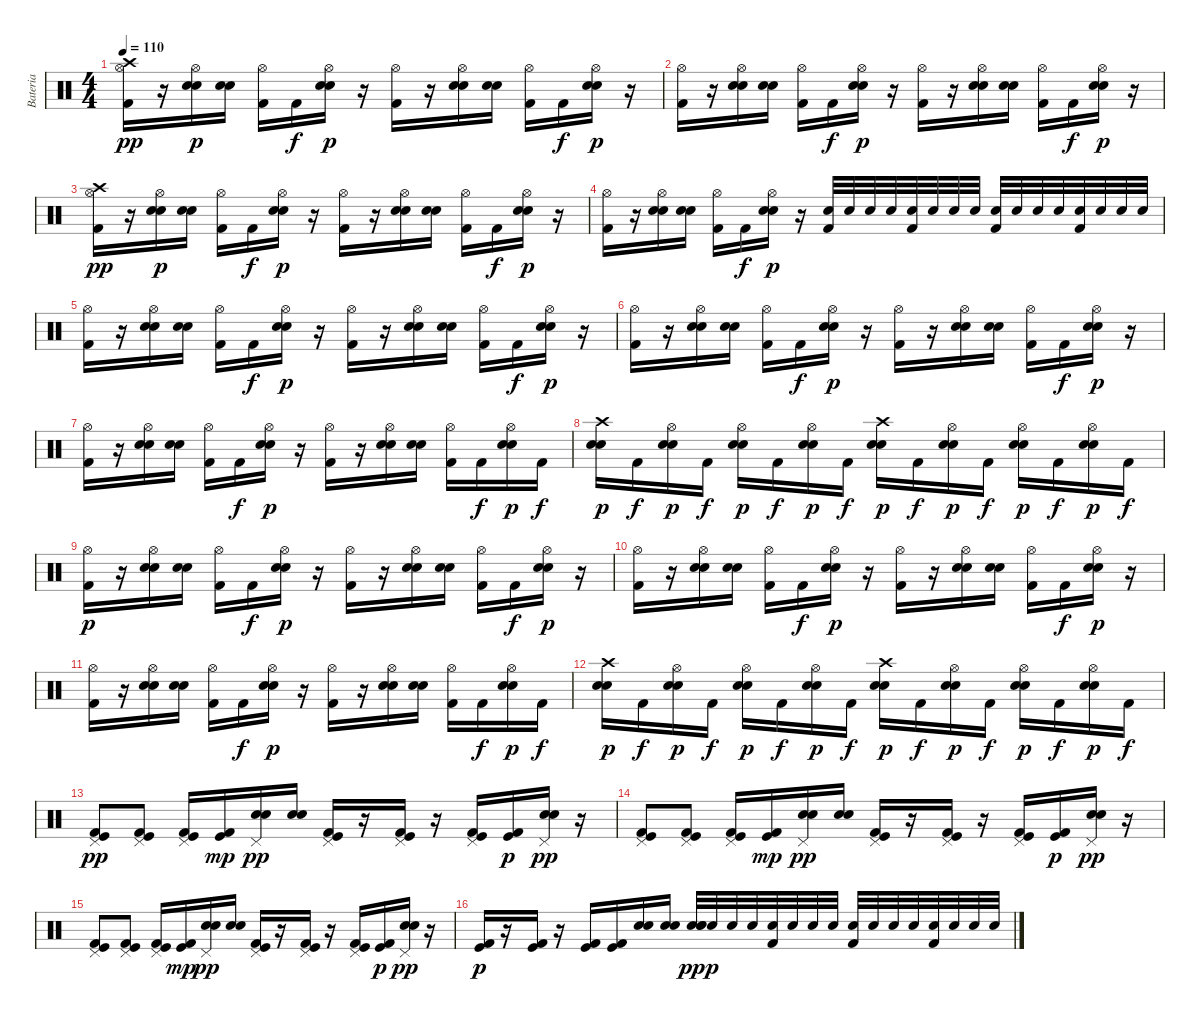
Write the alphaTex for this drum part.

\track ("Bateria" "Bateria") {instrument percussion}
\staff {score}
\articulation defaults
\ts (4 4)
\tempo 110
\clef neutral
\ks c
("Hi-Hat (open)" "Kick (hit) 2" "Crash high (hit)").16{dy pp} r.16 ("Hi-Hat (open)" "Electric Snare (hit)" "Snare (hit) 2").16{dy p} ("Electric Snare (hit)" "Snare (hit) 2").16 ("Hi-Hat (open)" "Kick (hit) 2").16 "Kick (hit) 2".16{dy f} ("Hi-Hat (open)" "Electric Snare (hit)" "Snare (hit) 2").16{dy p} r.16 ("Hi-Hat (open)" "Kick (hit) 2").16 r.16 ("Hi-Hat (open)" "Electric Snare (hit)" "Snare (hit) 2").16 ("Electric Snare (hit)" "Snare (hit) 2").16 ("Hi-Hat (open)" "Kick (hit) 2").16 "Kick (hit) 2".16{dy f} ("Hi-Hat (open)" "Electric Snare (hit)" "Snare (hit) 2").16{dy p} r.16 |
("Hi-Hat (open)" "Kick (hit) 2").16 r.16 ("Hi-Hat (open)" "Electric Snare (hit)" "Snare (hit) 2").16 ("Electric Snare (hit)" "Snare (hit) 2").16 ("Hi-Hat (open)" "Kick (hit) 2").16 "Kick (hit) 2".16{dy f} ("Hi-Hat (open)" "Electric Snare (hit)" "Snare (hit) 2").16{dy p} r.16 ("Hi-Hat (open)" "Kick (hit) 2").16 r.16 ("Hi-Hat (open)" "Electric Snare (hit)" "Snare (hit) 2").16 ("Electric Snare (hit)" "Snare (hit) 2").16 ("Hi-Hat (open)" "Kick (hit) 2").16 "Kick (hit) 2".16{dy f} ("Hi-Hat (open)" "Electric Snare (hit)" "Snare (hit) 2").16{dy p} r.16 |
("Hi-Hat (open)" "Kick (hit) 2" "Crash high (hit)").16{dy pp} r.16 ("Hi-Hat (open)" "Electric Snare (hit)" "Snare (hit) 2").16{dy p} ("Electric Snare (hit)" "Snare (hit) 2").16 ("Hi-Hat (open)" "Kick (hit) 2").16 "Kick (hit) 2".16{dy f} ("Hi-Hat (open)" "Electric Snare (hit)" "Snare (hit) 2").16{dy p} r.16 ("Hi-Hat (open)" "Kick (hit) 2").16 r.16 ("Hi-Hat (open)" "Electric Snare (hit)" "Snare (hit) 2").16 ("Electric Snare (hit)" "Snare (hit) 2").16 ("Hi-Hat (open)" "Kick (hit) 2").16 "Kick (hit) 2".16{dy f} ("Hi-Hat (open)" "Electric Snare (hit)" "Snare (hit) 2").16{dy p} r.16 |
("Hi-Hat (open)" "Kick (hit) 2").16 r.16 ("Hi-Hat (open)" "Electric Snare (hit)" "Snare (hit) 2").16 ("Electric Snare (hit)" "Snare (hit) 2").16 ("Hi-Hat (open)" "Kick (hit) 2").16 "Kick (hit) 2".16{dy f} ("Hi-Hat (open)" "Electric Snare (hit)" "Snare (hit) 2").16{dy p} r.16 ("Kick (hit) 2" "Electric Snare (hit)").32 "Electric Snare (hit)".32 "Electric Snare (hit)".32 "Electric Snare (hit)".32 ("Kick (hit) 2" "Electric Snare (hit)").32 "Electric Snare (hit)".32 "Electric Snare (hit)".32 "Electric Snare (hit)".32 ("Kick (hit) 2" "Electric Snare (hit)").32 "Electric Snare (hit)".32 "Electric Snare (hit)".32 "Electric Snare (hit)".32 ("Kick (hit) 2" "Electric Snare (hit)").32 "Electric Snare (hit)".32 "Electric Snare (hit)".32 "Electric Snare (hit)".32 |
("Hi-Hat (open)" "Kick (hit) 2").16 r.16 ("Hi-Hat (open)" "Electric Snare (hit)" "Snare (hit) 2").16 ("Electric Snare (hit)" "Snare (hit) 2").16 ("Hi-Hat (open)" "Kick (hit) 2").16 "Kick (hit) 2".16{dy f} ("Hi-Hat (open)" "Electric Snare (hit)" "Snare (hit) 2").16{dy p} r.16 ("Hi-Hat (open)" "Kick (hit) 2").16 r.16 ("Hi-Hat (open)" "Electric Snare (hit)" "Snare (hit) 2").16 ("Electric Snare (hit)" "Snare (hit) 2").16 ("Hi-Hat (open)" "Kick (hit) 2").16 "Kick (hit) 2".16{dy f} ("Hi-Hat (open)" "Electric Snare (hit)" "Snare (hit) 2").16{dy p} r.16 |
("Hi-Hat (open)" "Kick (hit) 2").16 r.16 ("Hi-Hat (open)" "Electric Snare (hit)" "Snare (hit) 2").16 ("Electric Snare (hit)" "Snare (hit) 2").16 ("Hi-Hat (open)" "Kick (hit) 2").16 "Kick (hit) 2".16{dy f} ("Hi-Hat (open)" "Electric Snare (hit)" "Snare (hit) 2").16{dy p} r.16 ("Hi-Hat (open)" "Kick (hit) 2").16 r.16 ("Hi-Hat (open)" "Electric Snare (hit)" "Snare (hit) 2").16 ("Electric Snare (hit)" "Snare (hit) 2").16 ("Hi-Hat (open)" "Kick (hit) 2").16 "Kick (hit) 2".16{dy f} ("Hi-Hat (open)" "Electric Snare (hit)" "Snare (hit) 2").16{dy p} r.16 |
("Hi-Hat (open)" "Kick (hit) 2").16 r.16 ("Hi-Hat (open)" "Electric Snare (hit)" "Snare (hit) 2").16 ("Electric Snare (hit)" "Snare (hit) 2").16 ("Hi-Hat (open)" "Kick (hit) 2").16 "Kick (hit) 2".16{dy f} ("Hi-Hat (open)" "Electric Snare (hit)" "Snare (hit) 2").16{dy p} r.16 ("Hi-Hat (open)" "Kick (hit) 2").16 r.16 ("Hi-Hat (open)" "Electric Snare (hit)" "Snare (hit) 2").16 ("Electric Snare (hit)" "Snare (hit) 2").16 ("Hi-Hat (open)" "Kick (hit) 2").16 "Kick (hit) 2".16{dy f} ("Hi-Hat (open)" "Electric Snare (hit)" "Snare (hit) 2").16{dy p} "Kick (hit) 2".16{dy f} |
("Electric Snare (hit)" "Snare (hit) 2" "Crash high (hit)").16{dy p} "Kick (hit) 2".16{dy f} ("Electric Snare (hit)" "Snare (hit) 2" "Hi-Hat (open)").16{dy p} "Kick (hit) 2".16{dy f} ("Electric Snare (hit)" "Snare (hit) 2" "Hi-Hat (open)").16{dy p} "Kick (hit) 2".16{dy f} ("Electric Snare (hit)" "Snare (hit) 2" "Hi-Hat (open)").16{dy p} "Kick (hit) 2".16{dy f} ("Electric Snare (hit)" "Snare (hit) 2" "Crash high (hit)").16{dy p} "Kick (hit) 2".16{dy f} ("Electric Snare (hit)" "Snare (hit) 2" "Hi-Hat (open)").16{dy p} "Kick (hit) 2".16{dy f} ("Electric Snare (hit)" "Snare (hit) 2" "Hi-Hat (open)").16{dy p} "Kick (hit) 2".16{dy f} ("Electric Snare (hit)" "Snare (hit) 2" "Hi-Hat (open)").16{dy p} "Kick (hit) 2".16{dy f} |
("Hi-Hat (open)" "Kick (hit) 2").16{dy p} r.16 ("Hi-Hat (open)" "Electric Snare (hit)" "Snare (hit) 2").16 ("Electric Snare (hit)" "Snare (hit) 2").16 ("Hi-Hat (open)" "Kick (hit) 2").16 "Kick (hit) 2".16{dy f} ("Hi-Hat (open)" "Electric Snare (hit)" "Snare (hit) 2").16{dy p} r.16 ("Hi-Hat (open)" "Kick (hit) 2").16 r.16 ("Hi-Hat (open)" "Electric Snare (hit)" "Snare (hit) 2").16 ("Electric Snare (hit)" "Snare (hit) 2").16 ("Hi-Hat (open)" "Kick (hit) 2").16 "Kick (hit) 2".16{dy f} ("Hi-Hat (open)" "Electric Snare (hit)" "Snare (hit) 2").16{dy p} r.16 |
("Hi-Hat (open)" "Kick (hit) 2").16 r.16 ("Hi-Hat (open)" "Electric Snare (hit)" "Snare (hit) 2").16 ("Electric Snare (hit)" "Snare (hit) 2").16 ("Hi-Hat (open)" "Kick (hit) 2").16 "Kick (hit) 2".16{dy f} ("Hi-Hat (open)" "Electric Snare (hit)" "Snare (hit) 2").16{dy p} r.16 ("Hi-Hat (open)" "Kick (hit) 2").16 r.16 ("Hi-Hat (open)" "Electric Snare (hit)" "Snare (hit) 2").16 ("Electric Snare (hit)" "Snare (hit) 2").16 ("Hi-Hat (open)" "Kick (hit) 2").16 "Kick (hit) 2".16{dy f} ("Hi-Hat (open)" "Electric Snare (hit)" "Snare (hit) 2").16{dy p} r.16 |
("Hi-Hat (open)" "Kick (hit) 2").16 r.16 ("Hi-Hat (open)" "Electric Snare (hit)" "Snare (hit) 2").16 ("Electric Snare (hit)" "Snare (hit) 2").16 ("Hi-Hat (open)" "Kick (hit) 2").16 "Kick (hit) 2".16{dy f} ("Hi-Hat (open)" "Electric Snare (hit)" "Snare (hit) 2").16{dy p} r.16 ("Hi-Hat (open)" "Kick (hit) 2").16 r.16 ("Hi-Hat (open)" "Electric Snare (hit)" "Snare (hit) 2").16 ("Electric Snare (hit)" "Snare (hit) 2").16 ("Hi-Hat (open)" "Kick (hit) 2").16 "Kick (hit) 2".16{dy f} ("Hi-Hat (open)" "Electric Snare (hit)" "Snare (hit) 2").16{dy p} "Kick (hit) 2".16{dy f} |
("Electric Snare (hit)" "Snare (hit) 2" "Crash high (hit)").16{dy p} "Kick (hit) 2".16{dy f} ("Electric Snare (hit)" "Snare (hit) 2" "Hi-Hat (open)").16{dy p} "Kick (hit) 2".16{dy f} ("Electric Snare (hit)" "Snare (hit) 2" "Hi-Hat (open)").16{dy p} "Kick (hit) 2".16{dy f} ("Electric Snare (hit)" "Snare (hit) 2" "Hi-Hat (open)").16{dy p} "Kick (hit) 2".16{dy f} ("Electric Snare (hit)" "Snare (hit) 2" "Crash high (hit)").16{dy p} "Kick (hit) 2".16{dy f} ("Electric Snare (hit)" "Snare (hit) 2" "Hi-Hat (open)").16{dy p} "Kick (hit) 2".16{dy f} ("Electric Snare (hit)" "Snare (hit) 2" "Hi-Hat (open)").16{dy p} "Kick (hit) 2".16{dy f} ("Electric Snare (hit)" "Snare (hit) 2" "Hi-Hat (open)").16{dy p} "Kick (hit) 2".16{dy f} |
("Kick (hit) 2" "Kick (hit)" "Pedal Hi-Hat (hit)").8{dy pp} ("Kick (hit) 2" "Kick (hit)" "Pedal Hi-Hat (hit)").8 ("Kick (hit) 2" "Kick (hit)" "Pedal Hi-Hat (hit)").16 ("Kick (hit) 2" "Kick (hit)").16{dy mp} ("Electric Snare (hit)" "Snare (hit) 2" "Pedal Hi-Hat (hit)").16{dy pp} ("Electric Snare (hit)" "Snare (hit) 2").16 ("Kick (hit) 2" "Kick (hit)" "Pedal Hi-Hat (hit)").16 r.16 ("Kick (hit) 2" "Kick (hit)" "Pedal Hi-Hat (hit)").16 r.16 ("Kick (hit) 2" "Kick (hit)" "Pedal Hi-Hat (hit)").16 ("Kick (hit) 2" "Kick (hit)").16{dy p} ("Electric Snare (hit)" "Snare (hit) 2" "Pedal Hi-Hat (hit)").16{dy pp} r.16 |
("Kick (hit) 2" "Kick (hit)" "Pedal Hi-Hat (hit)").8 ("Kick (hit) 2" "Kick (hit)" "Pedal Hi-Hat (hit)").8 ("Kick (hit) 2" "Kick (hit)" "Pedal Hi-Hat (hit)").16 ("Kick (hit) 2" "Kick (hit)").16{dy mp} ("Electric Snare (hit)" "Snare (hit) 2" "Pedal Hi-Hat (hit)").16{dy pp} ("Electric Snare (hit)" "Snare (hit) 2").16 ("Kick (hit) 2" "Kick (hit)" "Pedal Hi-Hat (hit)").16 r.16 ("Kick (hit) 2" "Kick (hit)" "Pedal Hi-Hat (hit)").16 r.16 ("Kick (hit) 2" "Kick (hit)" "Pedal Hi-Hat (hit)").16 ("Kick (hit) 2" "Kick (hit)").16{dy p} ("Electric Snare (hit)" "Snare (hit) 2" "Pedal Hi-Hat (hit)").16{dy pp} r.16 |
("Kick (hit) 2" "Kick (hit)" "Pedal Hi-Hat (hit)").8 ("Kick (hit) 2" "Kick (hit)" "Pedal Hi-Hat (hit)").8 ("Kick (hit) 2" "Kick (hit)" "Pedal Hi-Hat (hit)").16 ("Kick (hit) 2" "Kick (hit)").16{dy mp} ("Electric Snare (hit)" "Snare (hit) 2" "Pedal Hi-Hat (hit)").16{dy pp} ("Electric Snare (hit)" "Snare (hit) 2").16 ("Kick (hit) 2" "Kick (hit)" "Pedal Hi-Hat (hit)").16 r.16 ("Kick (hit) 2" "Kick (hit)" "Pedal Hi-Hat (hit)").16 r.16 ("Kick (hit) 2" "Kick (hit)" "Pedal Hi-Hat (hit)").16 ("Kick (hit) 2" "Kick (hit)").16{dy p} ("Electric Snare (hit)" "Snare (hit) 2" "Pedal Hi-Hat (hit)").16{dy pp} r.16 |
("Kick (hit) 2" "Kick (hit)").16{dy p} r.16 ("Kick (hit) 2" "Kick (hit)").16 r.16 ("Kick (hit) 2" "Kick (hit)").16 ("Kick (hit) 2" "Kick (hit)").16 ("Electric Snare (hit)" "Snare (hit) 2").16 ("Electric Snare (hit)" "Snare (hit) 2").16 ("Electric Snare (hit)" "Electric Snare (hit)" "Snare (hit) 2").32{dy pp} "Electric Snare (hit)".32{dy p} "Electric Snare (hit)".32 "Electric Snare (hit)".32 ("Kick (hit) 2" "Electric Snare (hit)").32 "Electric Snare (hit)".32 "Electric Snare (hit)".32 "Electric Snare (hit)".32 ("Kick (hit) 2" "Electric Snare (hit)").32 "Electric Snare (hit)".32 "Electric Snare (hit)".32 "Electric Snare (hit)".32 ("Kick (hit) 2" "Electric Snare (hit)").32 "Electric Snare (hit)".32 "Electric Snare (hit)".32 "Electric Snare (hit)".32
